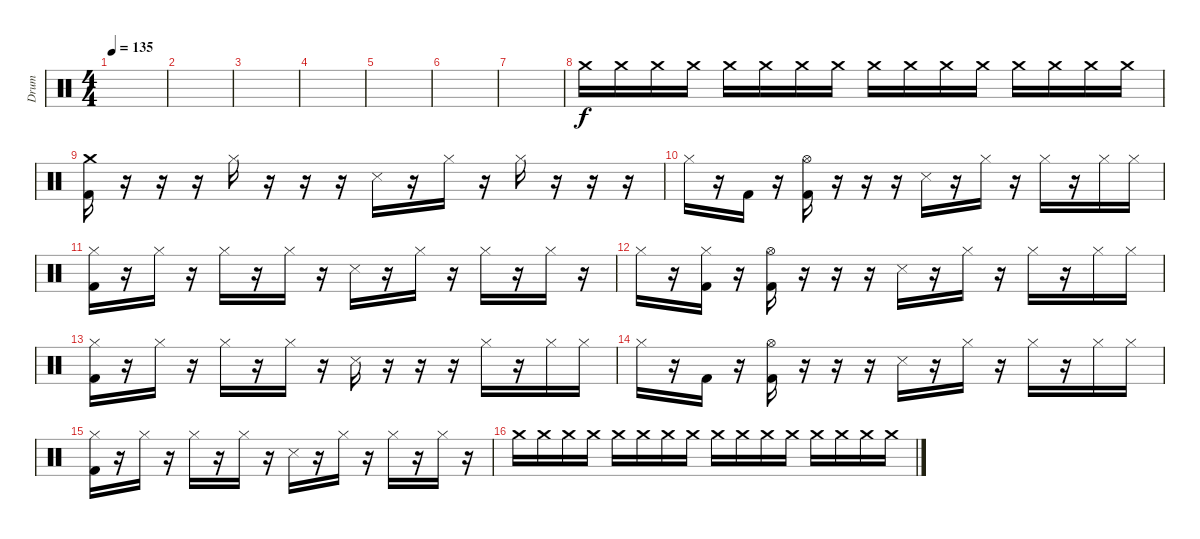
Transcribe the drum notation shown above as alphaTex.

\track ("Drum" "Drum") {instrument percussion}
\staff {score}
\articulation defaults
\ts (4 4)
\tempo 135
\clef neutral
\ks c
|
|
|
|
|
|
|
"Crash medium (hit)".16 "Crash medium (hit)".16 "Crash medium (hit)".16 "Crash medium (hit)".16 "Crash medium (hit)".16 "Crash medium (hit)".16 "Crash medium (hit)".16 "Crash medium (hit)".16 "Crash medium (hit)".16 "Crash medium (hit)".16 "Crash medium (hit)".16 "Crash medium (hit)".16 "Crash medium (hit)".16 "Crash medium (hit)".16 "Crash medium (hit)".16 "Crash medium (hit)".16 |
("Crash medium (hit)" "Kick (hit) 2").16 r.16 r.16 r.16 "Hi-Hat (closed)".16 r.16 r.16 r.16 "Snare (side stick) 3".16 r.16 "Hi-Hat (closed)".16 r.16 "Hi-Hat (closed)".16 r.16 r.16 r.16 |
"Hi-Hat (closed)".16 r.16 "Kick (hit) 2".16 r.16 ("Hi-Hat (open)" "Kick (hit) 2").16 r.16 r.16 r.16 "Snare (side stick) 3".16 r.16 "Hi-Hat (closed)".16 r.16 "Hi-Hat (closed)".16 r.16 "Hi-Hat (closed)".16 "Hi-Hat (closed)".16 |
("Hi-Hat (closed)" "Kick (hit) 2").16 r.16 "Hi-Hat (closed)".16 r.16 "Hi-Hat (closed)".16 r.16 "Hi-Hat (closed)".16 r.16 "Snare (side stick) 3".16 r.16 "Hi-Hat (closed)".16 r.16 "Hi-Hat (closed)".16 r.16 "Hi-Hat (closed)".16 r.16 |
"Hi-Hat (closed)".16 r.16 ("Hi-Hat (closed)" "Kick (hit) 2").16 r.16 ("Hi-Hat (open)" "Kick (hit) 2").16 r.16 r.16 r.16 "Snare (side stick) 3".16 r.16 "Hi-Hat (closed)".16 r.16 "Hi-Hat (closed)".16 r.16 "Hi-Hat (closed)".16 "Hi-Hat (closed)".16 |
("Hi-Hat (closed)" "Kick (hit) 2").16 r.16 "Hi-Hat (closed)".16 r.16 "Hi-Hat (closed)".16 r.16 "Hi-Hat (closed)".16 r.16 "Snare (side stick) 3".16 r.16 r.16 r.16 "Hi-Hat (closed)".16 r.16 "Hi-Hat (closed)".16 "Hi-Hat (closed)".16 |
"Hi-Hat (closed)".16 r.16 "Kick (hit) 2".16 r.16 ("Hi-Hat (open)" "Kick (hit) 2").16 r.16 r.16 r.16 "Snare (side stick) 3".16 r.16 "Hi-Hat (closed)".16 r.16 "Hi-Hat (closed)".16 r.16 "Hi-Hat (closed)".16 "Hi-Hat (closed)".16 |
("Hi-Hat (closed)" "Kick (hit) 2").16 r.16 "Hi-Hat (closed)".16 r.16 "Hi-Hat (closed)".16 r.16 "Hi-Hat (closed)".16 r.16 "Snare (side stick) 3".16 r.16 "Hi-Hat (closed)".16 r.16 "Hi-Hat (closed)".16 r.16 "Hi-Hat (closed)".16 r.16 |
"Crash medium (hit)".16 "Crash medium (hit)".16 "Crash medium (hit)".16 "Crash medium (hit)".16 "Crash medium (hit)".16 "Crash medium (hit)".16 "Crash medium (hit)".16 "Crash medium (hit)".16 "Crash medium (hit)".16 "Crash medium (hit)".16 "Crash medium (hit)".16 "Crash medium (hit)".16 "Crash medium (hit)".16 "Crash medium (hit)".16 "Crash medium (hit)".16 "Crash medium (hit)".16
